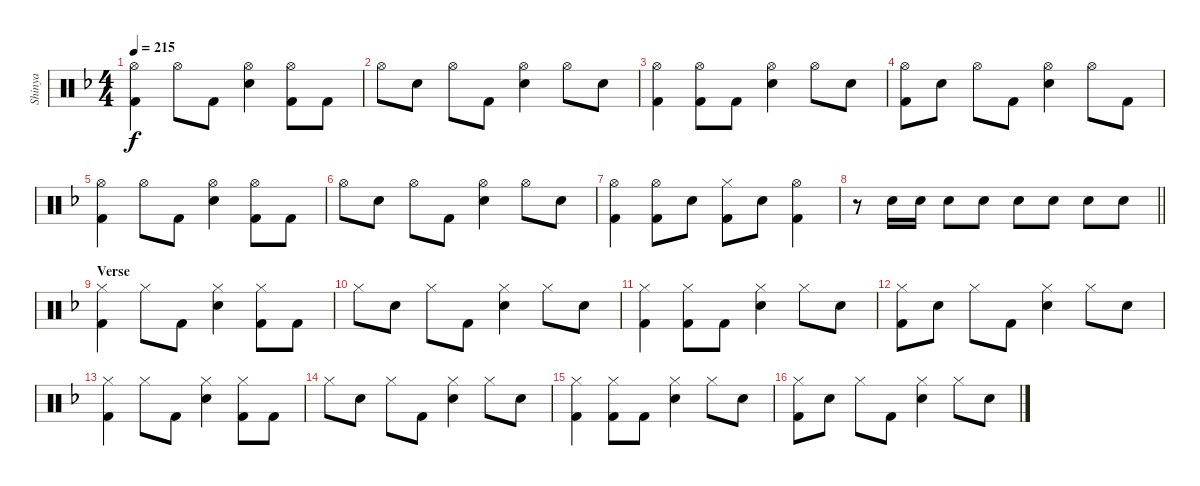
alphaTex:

\track ("Shinya" "Shinya") {instrument percussion}
\staff {score}
\articulation defaults
\ts (4 4)
\tempo 215
\clef neutral
\ks f
("Hi-Hat (open)" "Kick (hit) 2").4{dy f} "Hi-Hat (open)".8 "Kick (hit) 2".8 ("Hi-Hat (open)" "Snare (hit) 2").4 ("Hi-Hat (open)" "Kick (hit) 2").8 "Kick (hit) 2".8 |
"Hi-Hat (open)".8 "Snare (hit) 2".8 "Hi-Hat (open)".8 "Kick (hit) 2".8 ("Hi-Hat (open)" "Snare (hit) 2").4 "Hi-Hat (open)".8 "Snare (hit) 2".8 |
("Hi-Hat (open)" "Kick (hit) 2").4 ("Hi-Hat (open)" "Kick (hit) 2").8 "Kick (hit) 2".8 ("Hi-Hat (open)" "Snare (hit) 2").4 "Hi-Hat (open)".8 "Snare (hit) 2".8 |
("Hi-Hat (open)" "Kick (hit) 2").8 "Snare (hit) 2".8 "Hi-Hat (open)".8 "Kick (hit) 2".8 ("Hi-Hat (open)" "Snare (hit) 2").4 "Hi-Hat (open)".8 "Kick (hit) 2".8 |
("Hi-Hat (open)" "Kick (hit) 2").4 "Hi-Hat (open)".8 "Kick (hit) 2".8 ("Hi-Hat (open)" "Snare (hit) 2").4 ("Hi-Hat (open)" "Kick (hit) 2").8 "Kick (hit) 2".8 |
"Hi-Hat (open)".8 "Snare (hit) 2".8 "Hi-Hat (open)".8 "Kick (hit) 2".8 ("Hi-Hat (open)" "Snare (hit) 2").4 "Hi-Hat (open)".8 "Snare (hit) 2".8 |
("Hi-Hat (open)" "Kick (hit) 2").4 ("Hi-Hat (open)" "Kick (hit) 2").8 "Snare (hit) 2".8 ("Hi-Hat (closed)" "Kick (hit) 2").8 "Snare (hit) 2".8 ("Hi-Hat (open)" "Kick (hit) 2").4 |
\barLineRight lightlight
r.8 "Snare (hit) 2".16 "Snare (hit) 2".16 "Snare (hit) 2".8 "Snare (hit) 2".8 "Snare (hit) 2".8 "Snare (hit) 2".8 "Snare (hit) 2".8 "Snare (hit) 2".8 |
\section ("" "Verse")
("Hi-Hat (closed)" "Kick (hit) 2").4 "Hi-Hat (closed)".8 "Kick (hit) 2".8 ("Hi-Hat (closed)" "Snare (hit) 2").4 ("Hi-Hat (closed)" "Kick (hit) 2").8 "Kick (hit) 2".8 |
"Hi-Hat (closed)".8 "Snare (hit) 2".8 "Hi-Hat (closed)".8 "Kick (hit) 2".8 ("Hi-Hat (closed)" "Snare (hit) 2").4 "Hi-Hat (closed)".8 "Snare (hit) 2".8 |
("Hi-Hat (closed)" "Kick (hit) 2").4 ("Hi-Hat (closed)" "Kick (hit) 2").8 "Kick (hit) 2".8 ("Hi-Hat (closed)" "Snare (hit) 2").4 "Hi-Hat (closed)".8 "Snare (hit) 2".8 |
("Hi-Hat (closed)" "Kick (hit) 2").8 "Snare (hit) 2".8 "Hi-Hat (closed)".8 "Kick (hit) 2".8 ("Hi-Hat (closed)" "Snare (hit) 2").4 "Hi-Hat (closed)".8 "Snare (hit) 2".8 |
("Hi-Hat (closed)" "Kick (hit) 2").4 "Hi-Hat (closed)".8 "Kick (hit) 2".8 ("Hi-Hat (closed)" "Snare (hit) 2").4 ("Hi-Hat (closed)" "Kick (hit) 2").8 "Kick (hit) 2".8 |
"Hi-Hat (closed)".8 "Snare (hit) 2".8 "Hi-Hat (closed)".8 "Kick (hit) 2".8 ("Hi-Hat (closed)" "Snare (hit) 2").4 "Hi-Hat (closed)".8 "Snare (hit) 2".8 |
("Hi-Hat (closed)" "Kick (hit) 2").4 ("Hi-Hat (closed)" "Kick (hit) 2").8 "Kick (hit) 2".8 ("Hi-Hat (closed)" "Snare (hit) 2").4 "Hi-Hat (closed)".8 "Snare (hit) 2".8 |
("Hi-Hat (closed)" "Kick (hit) 2").8 "Snare (hit) 2".8 "Hi-Hat (closed)".8 "Kick (hit) 2".8 ("Hi-Hat (closed)" "Snare (hit) 2").4 "Hi-Hat (closed)".8 "Snare (hit) 2".8
